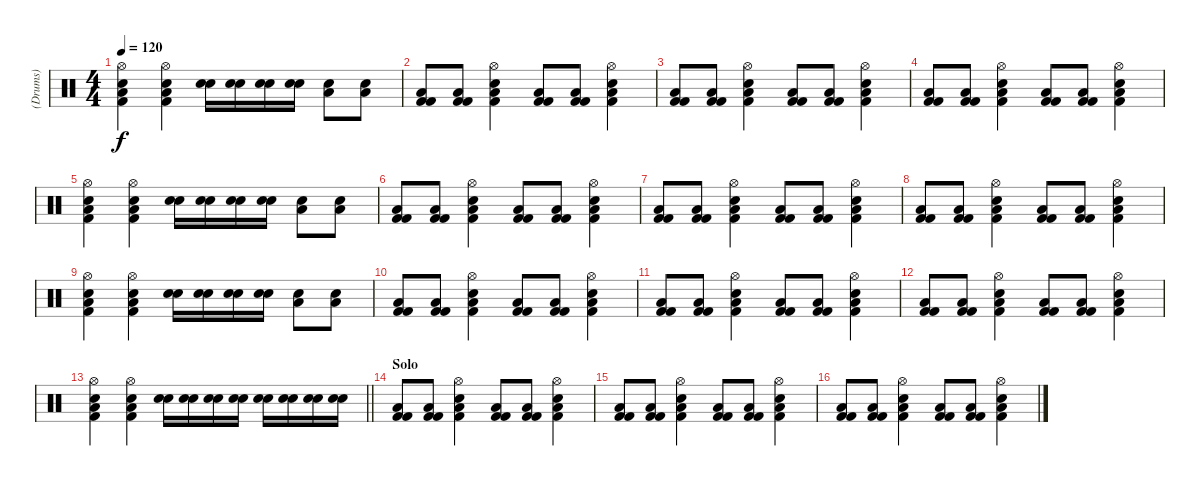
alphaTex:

\track ("(Drums)" "(Drums)") {instrument percussion}
\staff {score}
\articulation defaults
\ts (4 4)
\tempo 120
\clef neutral
\ks c
("Kick (hit) 2" "Electric Snare (hit)" "Low Floor Tom (hit)" "Hi-Hat (open)").4{dy f} ("Kick (hit) 2" "Electric Snare (hit)" "Low Floor Tom (hit)" "Hi-Hat (open)").4 ("Electric Snare (hit)" "Electric Snare (hit)").16 ("Electric Snare (hit)" "Electric Snare (hit)").16 ("Electric Snare (hit)" "Electric Snare (hit)").16 ("Electric Snare (hit)" "Electric Snare (hit)").16 ("Electric Snare (hit)" "Low Floor Tom (hit)").8 ("Electric Snare (hit)" "Low Floor Tom (hit)").8 |
("Kick (hit) 2" "Kick (hit) 2" "Low Floor Tom (hit)").8 ("Kick (hit) 2" "Kick (hit) 2" "Low Floor Tom (hit)").8 ("Kick (hit) 2" "Electric Snare (hit)" "Low Floor Tom (hit)" "Hi-Hat (open)").4 ("Kick (hit) 2" "Kick (hit) 2" "Low Floor Tom (hit)").8 ("Kick (hit) 2" "Kick (hit) 2" "Low Floor Tom (hit)").8 ("Kick (hit) 2" "Electric Snare (hit)" "Low Floor Tom (hit)" "Hi-Hat (open)").4 |
("Kick (hit) 2" "Kick (hit) 2" "Low Floor Tom (hit)").8 ("Kick (hit) 2" "Kick (hit) 2" "Low Floor Tom (hit)").8 ("Kick (hit) 2" "Electric Snare (hit)" "Low Floor Tom (hit)" "Hi-Hat (open)").4 ("Kick (hit) 2" "Kick (hit) 2" "Low Floor Tom (hit)").8 ("Kick (hit) 2" "Kick (hit) 2" "Low Floor Tom (hit)").8 ("Kick (hit) 2" "Electric Snare (hit)" "Low Floor Tom (hit)" "Hi-Hat (open)").4 |
("Kick (hit) 2" "Kick (hit) 2" "Low Floor Tom (hit)").8 ("Kick (hit) 2" "Kick (hit) 2" "Low Floor Tom (hit)").8 ("Kick (hit) 2" "Electric Snare (hit)" "Low Floor Tom (hit)" "Hi-Hat (open)").4 ("Kick (hit) 2" "Kick (hit) 2" "Low Floor Tom (hit)").8 ("Kick (hit) 2" "Kick (hit) 2" "Low Floor Tom (hit)").8 ("Kick (hit) 2" "Electric Snare (hit)" "Low Floor Tom (hit)" "Hi-Hat (open)").4 |
("Kick (hit) 2" "Electric Snare (hit)" "Low Floor Tom (hit)" "Hi-Hat (open)").4 ("Kick (hit) 2" "Electric Snare (hit)" "Low Floor Tom (hit)" "Hi-Hat (open)").4 ("Electric Snare (hit)" "Electric Snare (hit)").16 ("Electric Snare (hit)" "Electric Snare (hit)").16 ("Electric Snare (hit)" "Electric Snare (hit)").16 ("Electric Snare (hit)" "Electric Snare (hit)").16 ("Electric Snare (hit)" "Low Floor Tom (hit)").8 ("Electric Snare (hit)" "Low Floor Tom (hit)").8 |
("Kick (hit) 2" "Kick (hit) 2" "Low Floor Tom (hit)").8 ("Kick (hit) 2" "Kick (hit) 2" "Low Floor Tom (hit)").8 ("Kick (hit) 2" "Electric Snare (hit)" "Low Floor Tom (hit)" "Hi-Hat (open)").4 ("Kick (hit) 2" "Kick (hit) 2" "Low Floor Tom (hit)").8 ("Kick (hit) 2" "Kick (hit) 2" "Low Floor Tom (hit)").8 ("Kick (hit) 2" "Electric Snare (hit)" "Low Floor Tom (hit)" "Hi-Hat (open)").4 |
("Kick (hit) 2" "Kick (hit) 2" "Low Floor Tom (hit)").8 ("Kick (hit) 2" "Kick (hit) 2" "Low Floor Tom (hit)").8 ("Kick (hit) 2" "Electric Snare (hit)" "Low Floor Tom (hit)" "Hi-Hat (open)").4 ("Kick (hit) 2" "Kick (hit) 2" "Low Floor Tom (hit)").8 ("Kick (hit) 2" "Kick (hit) 2" "Low Floor Tom (hit)").8 ("Kick (hit) 2" "Electric Snare (hit)" "Low Floor Tom (hit)" "Hi-Hat (open)").4 |
("Kick (hit) 2" "Kick (hit) 2" "Low Floor Tom (hit)").8 ("Kick (hit) 2" "Kick (hit) 2" "Low Floor Tom (hit)").8 ("Kick (hit) 2" "Electric Snare (hit)" "Low Floor Tom (hit)" "Hi-Hat (open)").4 ("Kick (hit) 2" "Kick (hit) 2" "Low Floor Tom (hit)").8 ("Kick (hit) 2" "Kick (hit) 2" "Low Floor Tom (hit)").8 ("Kick (hit) 2" "Electric Snare (hit)" "Low Floor Tom (hit)" "Hi-Hat (open)").4 |
("Kick (hit) 2" "Electric Snare (hit)" "Low Floor Tom (hit)" "Hi-Hat (open)").4 ("Kick (hit) 2" "Electric Snare (hit)" "Low Floor Tom (hit)" "Hi-Hat (open)").4 ("Electric Snare (hit)" "Electric Snare (hit)").16 ("Electric Snare (hit)" "Electric Snare (hit)").16 ("Electric Snare (hit)" "Electric Snare (hit)").16 ("Electric Snare (hit)" "Electric Snare (hit)").16 ("Electric Snare (hit)" "Low Floor Tom (hit)").8 ("Electric Snare (hit)" "Low Floor Tom (hit)").8 |
("Kick (hit) 2" "Kick (hit) 2" "Low Floor Tom (hit)").8 ("Kick (hit) 2" "Kick (hit) 2" "Low Floor Tom (hit)").8 ("Kick (hit) 2" "Electric Snare (hit)" "Low Floor Tom (hit)" "Hi-Hat (open)").4 ("Kick (hit) 2" "Kick (hit) 2" "Low Floor Tom (hit)").8 ("Kick (hit) 2" "Kick (hit) 2" "Low Floor Tom (hit)").8 ("Kick (hit) 2" "Electric Snare (hit)" "Low Floor Tom (hit)" "Hi-Hat (open)").4 |
("Kick (hit) 2" "Kick (hit) 2" "Low Floor Tom (hit)").8 ("Kick (hit) 2" "Kick (hit) 2" "Low Floor Tom (hit)").8 ("Kick (hit) 2" "Electric Snare (hit)" "Low Floor Tom (hit)" "Hi-Hat (open)").4 ("Kick (hit) 2" "Kick (hit) 2" "Low Floor Tom (hit)").8 ("Kick (hit) 2" "Kick (hit) 2" "Low Floor Tom (hit)").8 ("Kick (hit) 2" "Electric Snare (hit)" "Low Floor Tom (hit)" "Hi-Hat (open)").4 |
("Kick (hit) 2" "Kick (hit) 2" "Low Floor Tom (hit)").8 ("Kick (hit) 2" "Kick (hit) 2" "Low Floor Tom (hit)").8 ("Kick (hit) 2" "Electric Snare (hit)" "Low Floor Tom (hit)" "Hi-Hat (open)").4 ("Kick (hit) 2" "Kick (hit) 2" "Low Floor Tom (hit)").8 ("Kick (hit) 2" "Kick (hit) 2" "Low Floor Tom (hit)").8 ("Kick (hit) 2" "Electric Snare (hit)" "Low Floor Tom (hit)" "Hi-Hat (open)").4 |
\barLineRight lightlight
("Kick (hit) 2" "Electric Snare (hit)" "Low Floor Tom (hit)" "Hi-Hat (open)").4 ("Kick (hit) 2" "Electric Snare (hit)" "Low Floor Tom (hit)" "Hi-Hat (open)").4 ("Electric Snare (hit)" "Electric Snare (hit)").16 ("Electric Snare (hit)" "Electric Snare (hit)").16 ("Electric Snare (hit)" "Electric Snare (hit)").16 ("Electric Snare (hit)" "Electric Snare (hit)").16 ("Electric Snare (hit)" "Electric Snare (hit)").16 ("Electric Snare (hit)" "Electric Snare (hit)").16 ("Electric Snare (hit)" "Electric Snare (hit)").16 ("Electric Snare (hit)" "Electric Snare (hit)").16 |
\section ("" "Solo")
("Kick (hit) 2" "Kick (hit) 2" "Low Floor Tom (hit)").8 ("Kick (hit) 2" "Kick (hit) 2" "Low Floor Tom (hit)").8 ("Kick (hit) 2" "Electric Snare (hit)" "Low Floor Tom (hit)" "Hi-Hat (open)").4 ("Kick (hit) 2" "Kick (hit) 2" "Low Floor Tom (hit)").8 ("Kick (hit) 2" "Kick (hit) 2" "Low Floor Tom (hit)").8 ("Kick (hit) 2" "Electric Snare (hit)" "Low Floor Tom (hit)" "Hi-Hat (open)").4 |
("Kick (hit) 2" "Kick (hit) 2" "Low Floor Tom (hit)").8 ("Kick (hit) 2" "Kick (hit) 2" "Low Floor Tom (hit)").8 ("Kick (hit) 2" "Electric Snare (hit)" "Low Floor Tom (hit)" "Hi-Hat (open)").4 ("Kick (hit) 2" "Kick (hit) 2" "Low Floor Tom (hit)").8 ("Kick (hit) 2" "Kick (hit) 2" "Low Floor Tom (hit)").8 ("Kick (hit) 2" "Electric Snare (hit)" "Low Floor Tom (hit)" "Hi-Hat (open)").4 |
("Kick (hit) 2" "Kick (hit) 2" "Low Floor Tom (hit)").8 ("Kick (hit) 2" "Kick (hit) 2" "Low Floor Tom (hit)").8 ("Kick (hit) 2" "Electric Snare (hit)" "Low Floor Tom (hit)" "Hi-Hat (open)").4 ("Kick (hit) 2" "Kick (hit) 2" "Low Floor Tom (hit)").8 ("Kick (hit) 2" "Kick (hit) 2" "Low Floor Tom (hit)").8 ("Kick (hit) 2" "Electric Snare (hit)" "Low Floor Tom (hit)" "Hi-Hat (open)").4
